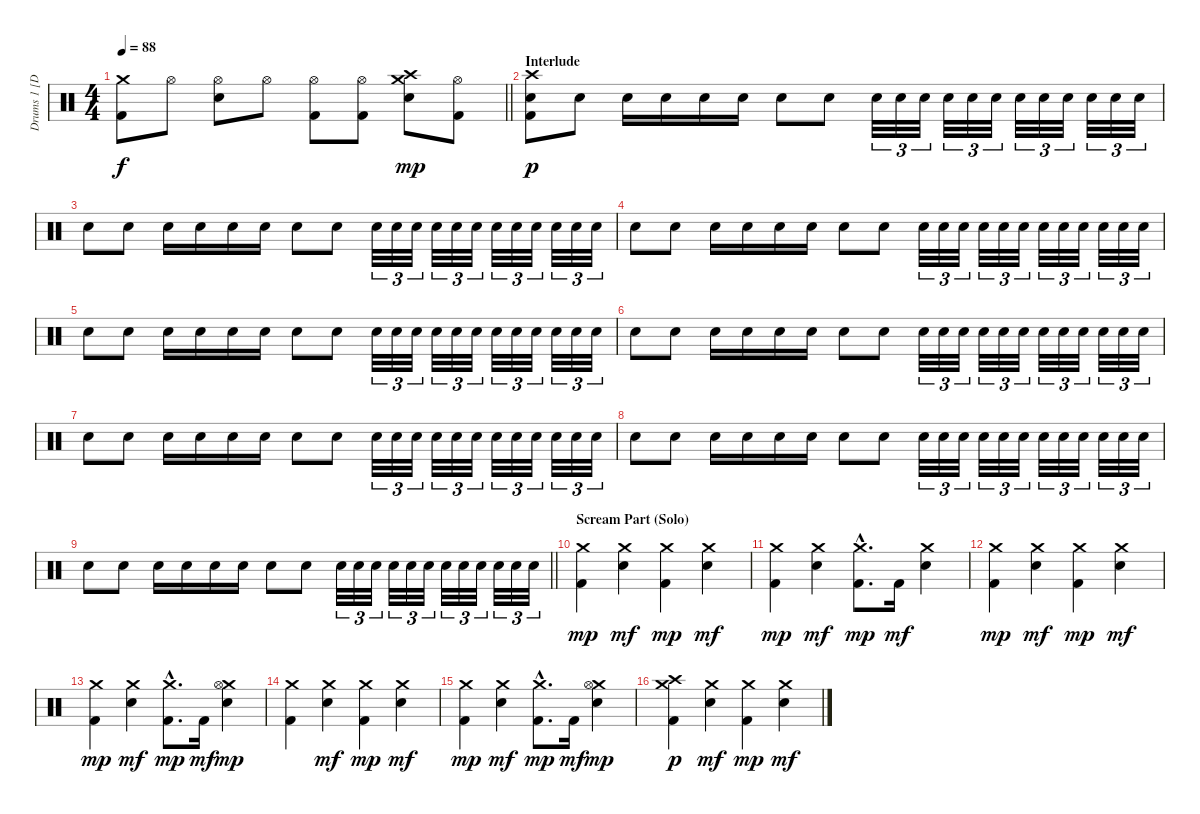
\track ("Drums 1 [Doom]" "Drums 1 [D") {instrument percussion}
\staff {score}
\articulation defaults
\ts (4 4)
\tempo 88
\clef neutral
\barLineRight lightlight
\ks c
("Crash medium (hit)" "Kick (hit) 2").8{dy f} "Hi-Hat (open)".8 ("Hi-Hat (open)" "Electric Snare (hit)").8 "Hi-Hat (open)".8 ("Hi-Hat (open)" "Kick (hit) 2").8 ("Hi-Hat (open)" "Kick (hit) 2").8 ("Crash medium (hit)" "Crash high (hit)" "Electric Snare (hit)").8{dy mp} ("Hi-Hat (open)" "Kick (hit) 2").8 |
\section ("" "Interlude")
("Crash high (hit)" "Electric Snare (hit)" "Kick (hit) 2").8{dy p} "Electric Snare (hit)".8 "Electric Snare (hit)".16 "Electric Snare (hit)".16 "Electric Snare (hit)".16 "Electric Snare (hit)".16 "Electric Snare (hit)".8 "Electric Snare (hit)".8 "Electric Snare (hit)".32{tu (3 2)} "Electric Snare (hit)".32{tu (3 2)} "Electric Snare (hit)".32{tu (3 2)} "Electric Snare (hit)".32{tu (3 2)} "Electric Snare (hit)".32{tu (3 2)} "Electric Snare (hit)".32{tu (3 2)} "Electric Snare (hit)".32{tu (3 2)} "Electric Snare (hit)".32{tu (3 2)} "Electric Snare (hit)".32{tu (3 2)} "Electric Snare (hit)".32{tu (3 2)} "Electric Snare (hit)".32{tu (3 2)} "Electric Snare (hit)".32{tu (3 2)} |
"Electric Snare (hit)".8 "Electric Snare (hit)".8 "Electric Snare (hit)".16 "Electric Snare (hit)".16 "Electric Snare (hit)".16 "Electric Snare (hit)".16 "Electric Snare (hit)".8 "Electric Snare (hit)".8 "Electric Snare (hit)".32{tu (3 2)} "Electric Snare (hit)".32{tu (3 2)} "Electric Snare (hit)".32{tu (3 2)} "Electric Snare (hit)".32{tu (3 2)} "Electric Snare (hit)".32{tu (3 2)} "Electric Snare (hit)".32{tu (3 2)} "Electric Snare (hit)".32{tu (3 2)} "Electric Snare (hit)".32{tu (3 2)} "Electric Snare (hit)".32{tu (3 2)} "Electric Snare (hit)".32{tu (3 2)} "Electric Snare (hit)".32{tu (3 2)} "Electric Snare (hit)".32{tu (3 2)} |
"Electric Snare (hit)".8 "Electric Snare (hit)".8 "Electric Snare (hit)".16 "Electric Snare (hit)".16 "Electric Snare (hit)".16 "Electric Snare (hit)".16 "Electric Snare (hit)".8 "Electric Snare (hit)".8 "Electric Snare (hit)".32{tu (3 2)} "Electric Snare (hit)".32{tu (3 2)} "Electric Snare (hit)".32{tu (3 2)} "Electric Snare (hit)".32{tu (3 2)} "Electric Snare (hit)".32{tu (3 2)} "Electric Snare (hit)".32{tu (3 2)} "Electric Snare (hit)".32{tu (3 2)} "Electric Snare (hit)".32{tu (3 2)} "Electric Snare (hit)".32{tu (3 2)} "Electric Snare (hit)".32{tu (3 2)} "Electric Snare (hit)".32{tu (3 2)} "Electric Snare (hit)".32{tu (3 2)} |
"Electric Snare (hit)".8 "Electric Snare (hit)".8 "Electric Snare (hit)".16 "Electric Snare (hit)".16 "Electric Snare (hit)".16 "Electric Snare (hit)".16 "Electric Snare (hit)".8 "Electric Snare (hit)".8 "Electric Snare (hit)".32{tu (3 2)} "Electric Snare (hit)".32{tu (3 2)} "Electric Snare (hit)".32{tu (3 2)} "Electric Snare (hit)".32{tu (3 2)} "Electric Snare (hit)".32{tu (3 2)} "Electric Snare (hit)".32{tu (3 2)} "Electric Snare (hit)".32{tu (3 2)} "Electric Snare (hit)".32{tu (3 2)} "Electric Snare (hit)".32{tu (3 2)} "Electric Snare (hit)".32{tu (3 2)} "Electric Snare (hit)".32{tu (3 2)} "Electric Snare (hit)".32{tu (3 2)} |
"Electric Snare (hit)".8 "Electric Snare (hit)".8 "Electric Snare (hit)".16 "Electric Snare (hit)".16 "Electric Snare (hit)".16 "Electric Snare (hit)".16 "Electric Snare (hit)".8 "Electric Snare (hit)".8 "Electric Snare (hit)".32{tu (3 2)} "Electric Snare (hit)".32{tu (3 2)} "Electric Snare (hit)".32{tu (3 2)} "Electric Snare (hit)".32{tu (3 2)} "Electric Snare (hit)".32{tu (3 2)} "Electric Snare (hit)".32{tu (3 2)} "Electric Snare (hit)".32{tu (3 2)} "Electric Snare (hit)".32{tu (3 2)} "Electric Snare (hit)".32{tu (3 2)} "Electric Snare (hit)".32{tu (3 2)} "Electric Snare (hit)".32{tu (3 2)} "Electric Snare (hit)".32{tu (3 2)} |
"Electric Snare (hit)".8 "Electric Snare (hit)".8 "Electric Snare (hit)".16 "Electric Snare (hit)".16 "Electric Snare (hit)".16 "Electric Snare (hit)".16 "Electric Snare (hit)".8 "Electric Snare (hit)".8 "Electric Snare (hit)".32{tu (3 2)} "Electric Snare (hit)".32{tu (3 2)} "Electric Snare (hit)".32{tu (3 2)} "Electric Snare (hit)".32{tu (3 2)} "Electric Snare (hit)".32{tu (3 2)} "Electric Snare (hit)".32{tu (3 2)} "Electric Snare (hit)".32{tu (3 2)} "Electric Snare (hit)".32{tu (3 2)} "Electric Snare (hit)".32{tu (3 2)} "Electric Snare (hit)".32{tu (3 2)} "Electric Snare (hit)".32{tu (3 2)} "Electric Snare (hit)".32{tu (3 2)} |
"Electric Snare (hit)".8 "Electric Snare (hit)".8 "Electric Snare (hit)".16 "Electric Snare (hit)".16 "Electric Snare (hit)".16 "Electric Snare (hit)".16 "Electric Snare (hit)".8 "Electric Snare (hit)".8 "Electric Snare (hit)".32{tu (3 2)} "Electric Snare (hit)".32{tu (3 2)} "Electric Snare (hit)".32{tu (3 2)} "Electric Snare (hit)".32{tu (3 2)} "Electric Snare (hit)".32{tu (3 2)} "Electric Snare (hit)".32{tu (3 2)} "Electric Snare (hit)".32{tu (3 2)} "Electric Snare (hit)".32{tu (3 2)} "Electric Snare (hit)".32{tu (3 2)} "Electric Snare (hit)".32{tu (3 2)} "Electric Snare (hit)".32{tu (3 2)} "Electric Snare (hit)".32{tu (3 2)} |
\barLineRight lightlight "Electric Snare (hit)".8 "Electric Snare (hit)".8 "Electric Snare (hit)".16 "Electric Snare (hit)".16 "Electric Snare (hit)".16 "Electric Snare (hit)".16 "Electric Snare (hit)".8 "Electric Snare (hit)".8 "Electric Snare (hit)".32{tu (3 2)} "Electric Snare (hit)".32{tu (3 2)} "Electric Snare (hit)".32{tu (3 2)} "Electric Snare (hit)".32{tu (3 2)} "Electric Snare (hit)".32{tu (3 2)} "Electric Snare (hit)".32{tu (3 2)} "Electric Snare (hit)".32{tu (3 2)} "Electric Snare (hit)".32{tu (3 2)} "Electric Snare (hit)".32{tu (3 2)} "Electric Snare (hit)".32{tu (3 2)} "Electric Snare (hit)".32{tu (3 2)} "Electric Snare (hit)".32{tu (3 2)}
|
\section ("" "Scream Part (Solo)")
("Crash medium (hit)" "Kick (hit) 2").4{dy mp} ("Crash medium (hit)" "Electric Snare (hit)").4{dy mf} ("Crash medium (hit)" "Kick (hit) 2").4{dy mp} ("Crash medium (hit)" "Electric Snare (hit)").4{dy mf} |
("Crash medium (hit)" "Kick (hit) 2").4{dy mp} ("Crash medium (hit)" "Electric Snare (hit)").4{dy mf} ("Crash medium (hit)"{hac} "Kick (hit) 2"{hac}).8{d dy mp} "Kick (hit) 2".16{dy mf} ("Crash medium (hit)" "Electric Snare (hit)").4 |
("Crash medium (hit)" "Kick (hit) 2").4{dy mp} ("Crash medium (hit)" "Electric Snare (hit)").4{dy mf} ("Crash medium (hit)" "Kick (hit) 2").4{dy mp} ("Crash medium (hit)" "Electric Snare (hit)").4{dy mf} |
("Crash medium (hit)" "Kick (hit) 2").4{dy mp} ("Crash medium (hit)" "Electric Snare (hit)").4{dy mf} ("Crash medium (hit)"{hac} "Kick (hit) 2"{hac}).8{d dy mp} "Kick (hit) 2".16{dy mf} ("Crash medium (hit)" "Hi-Hat (open)" "Electric Snare (hit)").4{dy mp} |
("Crash medium (hit)" "Kick (hit) 2").4 ("Crash medium (hit)" "Electric Snare (hit)").4{dy mf} ("Crash medium (hit)" "Kick (hit) 2").4{dy mp} ("Crash medium (hit)" "Electric Snare (hit)").4{dy mf} |
("Crash medium (hit)" "Kick (hit) 2").4{dy mp} ("Crash medium (hit)" "Electric Snare (hit)").4{dy mf} ("Crash medium (hit)"{hac} "Kick (hit) 2"{hac}).8{d dy mp} "Kick (hit) 2".16{dy mf} ("Crash medium (hit)" "Hi-Hat (open)" "Electric Snare (hit)").4{dy mp} |
("Crash medium (hit)" "Crash high (hit)" "Kick (hit) 2").4{dy p} ("Crash medium (hit)" "Electric Snare (hit)").4{dy mf} ("Crash medium (hit)" "Kick (hit) 2").4{dy mp} ("Crash medium (hit)" "Electric Snare (hit)").4{dy mf}
